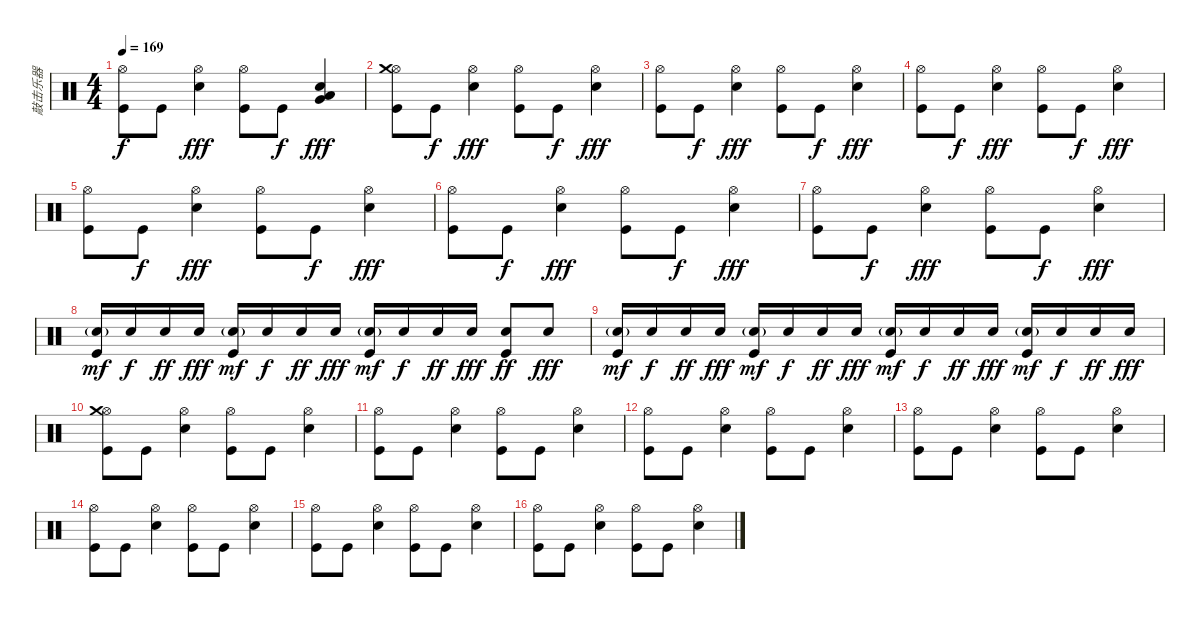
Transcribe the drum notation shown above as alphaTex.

\track ("敲击乐器" "敲击乐器") {instrument percussion}
\staff {score}
\articulation defaults
\ts (4 4)
\tempo 169
\clef neutral
\ks c
("Hi-Hat (open)" "Kick (hit)").8{dy f} "Kick (hit)".8 ("Hi-Hat (open)" "Electric Snare (hit)").4{dy fff} ("Hi-Hat (open)" "Kick (hit)").8 "Kick (hit)".8{dy f} ("Electric Snare (hit)" "Low Floor Tom (hit)" "Very Low Tom (hit)").4{dy fff} |
("Hi-Hat (open)" "Crash medium (hit)" "Kick (hit)").8 "Kick (hit)".8{dy f} ("Hi-Hat (open)" "Electric Snare (hit)").4{dy fff} ("Hi-Hat (open)" "Kick (hit)").8 "Kick (hit)".8{dy f} ("Electric Snare (hit)" "Hi-Hat (open)").4{dy fff} |
("Hi-Hat (open)" "Kick (hit)").8 "Kick (hit)".8{dy f} ("Hi-Hat (open)" "Electric Snare (hit)").4{dy fff} ("Hi-Hat (open)" "Kick (hit)").8 "Kick (hit)".8{dy f} ("Electric Snare (hit)" "Hi-Hat (open)").4{dy fff} |
("Hi-Hat (open)" "Kick (hit)").8 "Kick (hit)".8{dy f} ("Hi-Hat (open)" "Electric Snare (hit)").4{dy fff} ("Hi-Hat (open)" "Kick (hit)").8 "Kick (hit)".8{dy f} ("Electric Snare (hit)" "Hi-Hat (open)").4{dy fff} |
("Hi-Hat (open)" "Kick (hit)").8 "Kick (hit)".8{dy f} ("Hi-Hat (open)" "Electric Snare (hit)").4{dy fff} ("Hi-Hat (open)" "Kick (hit)").8 "Kick (hit)".8{dy f} ("Electric Snare (hit)" "Hi-Hat (open)").4{dy fff} |
("Hi-Hat (open)" "Kick (hit)").8 "Kick (hit)".8{dy f} ("Hi-Hat (open)" "Electric Snare (hit)").4{dy fff} ("Hi-Hat (open)" "Kick (hit)").8 "Kick (hit)".8{dy f} ("Electric Snare (hit)" "Hi-Hat (open)").4{dy fff} |
("Hi-Hat (open)" "Kick (hit)").8 "Kick (hit)".8{dy f} ("Hi-Hat (open)" "Electric Snare (hit)").4{dy fff} ("Hi-Hat (open)" "Kick (hit)").8 "Kick (hit)".8{dy f} ("Electric Snare (hit)" "Hi-Hat (open)").4{dy fff} |
("Electric Snare (hit)"{g} "Kick (hit)").16{dy mf} "Electric Snare (hit)".16{dy f} "Electric Snare (hit)".16{dy ff} "Electric Snare (hit)".16{dy fff} ("Electric Snare (hit)"{g} "Kick (hit)").16{dy mf} "Electric Snare (hit)".16{dy f} "Electric Snare (hit)".16{dy ff} "Electric Snare (hit)".16{dy fff} ("Electric Snare (hit)"{g} "Kick (hit)").16{dy mf} "Electric Snare (hit)".16{dy f} "Electric Snare (hit)".16{dy ff} "Electric Snare (hit)".16{dy fff} ("Electric Snare (hit)" "Kick (hit)").8{dy ff} "Electric Snare (hit)".8{dy fff} |
("Electric Snare (hit)"{g} "Kick (hit)").16{dy mf} "Electric Snare (hit)".16{dy f} "Electric Snare (hit)".16{dy ff} "Electric Snare (hit)".16{dy fff} ("Electric Snare (hit)"{g} "Kick (hit)").16{dy mf} "Electric Snare (hit)".16{dy f} "Electric Snare (hit)".16{dy ff} "Electric Snare (hit)".16{dy fff} ("Electric Snare (hit)"{g} "Kick (hit)").16{dy mf} "Electric Snare (hit)".16{dy f} "Electric Snare (hit)".16{dy ff} "Electric Snare (hit)".16{dy fff} ("Electric Snare (hit)"{g} "Kick (hit)").16{dy mf} "Electric Snare (hit)".16{dy f} "Electric Snare (hit)".16{dy ff} "Electric Snare (hit)".16{dy fff} |
("Hi-Hat (open)" "Crash medium (hit)" "Kick (hit)").8 "Kick (hit)".8 ("Electric Snare (hit)" "Hi-Hat (open)").4 ("Hi-Hat (open)" "Kick (hit)").8 "Kick (hit)".8 ("Hi-Hat (open)" "Electric Snare (hit)").4 |
("Hi-Hat (open)" "Kick (hit)").8 "Kick (hit)".8 ("Electric Snare (hit)" "Hi-Hat (open)").4 ("Hi-Hat (open)" "Kick (hit)").8 "Kick (hit)".8 ("Electric Snare (hit)" "Hi-Hat (open)").4 |
("Hi-Hat (open)" "Kick (hit)").8 "Kick (hit)".8 ("Electric Snare (hit)" "Hi-Hat (open)").4 ("Hi-Hat (open)" "Kick (hit)").8 "Kick (hit)".8 ("Electric Snare (hit)" "Hi-Hat (open)").4 |
("Hi-Hat (open)" "Kick (hit)").8 "Kick (hit)".8 ("Electric Snare (hit)" "Hi-Hat (open)").4 ("Hi-Hat (open)" "Kick (hit)").8 "Kick (hit)".8 ("Electric Snare (hit)" "Hi-Hat (open)").4 |
("Hi-Hat (open)" "Kick (hit)").8 "Kick (hit)".8 ("Electric Snare (hit)" "Hi-Hat (open)").4 ("Hi-Hat (open)" "Kick (hit)").8 "Kick (hit)".8 ("Hi-Hat (open)" "Electric Snare (hit)").4 |
("Hi-Hat (open)" "Kick (hit)").8 "Kick (hit)".8 ("Electric Snare (hit)" "Hi-Hat (open)").4 ("Hi-Hat (open)" "Kick (hit)").8 "Kick (hit)".8 ("Electric Snare (hit)" "Hi-Hat (open)").4 |
("Hi-Hat (open)" "Kick (hit)").8 "Kick (hit)".8 ("Electric Snare (hit)" "Hi-Hat (open)").4 ("Hi-Hat (open)" "Kick (hit)").8 "Kick (hit)".8 ("Hi-Hat (open)" "Electric Snare (hit)").4
